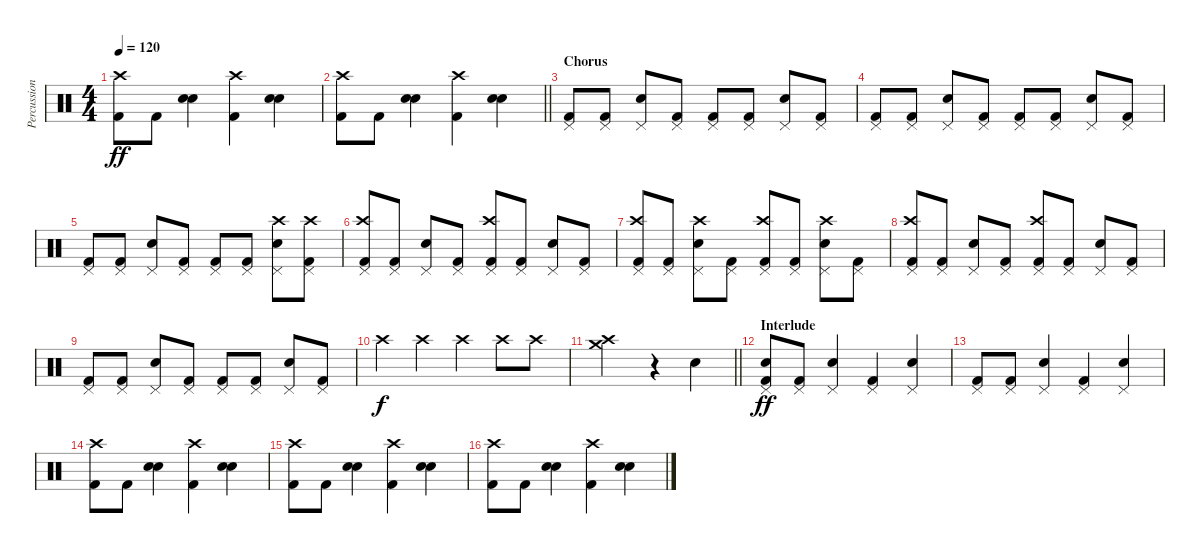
\track ("Percussion" "Percussion") {instrument percussion}
\staff {score}
\articulation defaults
\ts (4 4)
\tempo 120
\clef neutral
\ks c
("Kick (hit) 2" "Crash high (hit)").8{dy ff} "Kick (hit) 2".8 ("Snare (hit) 2" "Snare (hit) 2").4 ("Kick (hit) 2" "Crash high (hit)").4 ("Snare (hit) 2" "Snare (hit) 2").4 |
\barLineRight lightlight
("Kick (hit) 2" "Crash high (hit)").8 "Kick (hit) 2".8 ("Snare (hit) 2" "Snare (hit) 2").4 ("Kick (hit) 2" "Crash high (hit)").4 ("Snare (hit) 2" "Snare (hit) 2").4 |
\section ("" "Chorus")
("Kick (hit) 2" "Pedal Hi-Hat (hit)").8 ("Kick (hit) 2" "Pedal Hi-Hat (hit)").8 ("Snare (hit) 2" "Pedal Hi-Hat (hit)").8 ("Kick (hit) 2" "Pedal Hi-Hat (hit)").8 ("Kick (hit) 2" "Pedal Hi-Hat (hit)").8 ("Kick (hit) 2" "Pedal Hi-Hat (hit)").8 ("Snare (hit) 2" "Pedal Hi-Hat (hit)").8 ("Kick (hit) 2" "Pedal Hi-Hat (hit)").8 |
("Kick (hit) 2" "Pedal Hi-Hat (hit)").8 ("Kick (hit) 2" "Pedal Hi-Hat (hit)").8 ("Snare (hit) 2" "Pedal Hi-Hat (hit)").8 ("Kick (hit) 2" "Pedal Hi-Hat (hit)").8 ("Kick (hit) 2" "Pedal Hi-Hat (hit)").8 ("Kick (hit) 2" "Pedal Hi-Hat (hit)").8 ("Snare (hit) 2" "Pedal Hi-Hat (hit)").8 ("Kick (hit) 2" "Pedal Hi-Hat (hit)").8 |
("Kick (hit) 2" "Pedal Hi-Hat (hit)").8 ("Kick (hit) 2" "Pedal Hi-Hat (hit)").8 ("Snare (hit) 2" "Pedal Hi-Hat (hit)").8 ("Kick (hit) 2" "Pedal Hi-Hat (hit)").8 ("Kick (hit) 2" "Pedal Hi-Hat (hit)").8 ("Kick (hit) 2" "Pedal Hi-Hat (hit)").8 ("Snare (hit) 2" "Pedal Hi-Hat (hit)" "Crash high (hit)").8 ("Kick (hit) 2" "Pedal Hi-Hat (hit)" "Crash high (hit)").8 |
("Kick (hit) 2" "Pedal Hi-Hat (hit)" "Crash high (hit)").8 ("Kick (hit) 2" "Pedal Hi-Hat (hit)").8 ("Snare (hit) 2" "Pedal Hi-Hat (hit)").8 ("Kick (hit) 2" "Pedal Hi-Hat (hit)").8 ("Kick (hit) 2" "Pedal Hi-Hat (hit)" "Crash high (hit)").8 ("Kick (hit) 2" "Pedal Hi-Hat (hit)").8 ("Snare (hit) 2" "Pedal Hi-Hat (hit)").8 ("Kick (hit) 2" "Pedal Hi-Hat (hit)").8 |
("Kick (hit) 2" "Pedal Hi-Hat (hit)" "Crash high (hit)").8 ("Kick (hit) 2" "Pedal Hi-Hat (hit)").8 ("Snare (hit) 2" "Pedal Hi-Hat (hit)" "Crash high (hit)").8 ("Kick (hit) 2" "Pedal Hi-Hat (hit)").8 ("Kick (hit) 2" "Pedal Hi-Hat (hit)" "Crash high (hit)").8 ("Kick (hit) 2" "Pedal Hi-Hat (hit)").8 ("Snare (hit) 2" "Pedal Hi-Hat (hit)" "Crash high (hit)").8 ("Kick (hit) 2" "Pedal Hi-Hat (hit)").8 |
("Kick (hit) 2" "Pedal Hi-Hat (hit)" "Crash high (hit)").8 ("Kick (hit) 2" "Pedal Hi-Hat (hit)").8 ("Snare (hit) 2" "Pedal Hi-Hat (hit)").8 ("Kick (hit) 2" "Pedal Hi-Hat (hit)").8 ("Kick (hit) 2" "Pedal Hi-Hat (hit)" "Crash high (hit)").8 ("Kick (hit) 2" "Pedal Hi-Hat (hit)").8 ("Snare (hit) 2" "Pedal Hi-Hat (hit)").8 ("Kick (hit) 2" "Pedal Hi-Hat (hit)").8 |
("Kick (hit) 2" "Pedal Hi-Hat (hit)").8 ("Kick (hit) 2" "Pedal Hi-Hat (hit)").8 ("Snare (hit) 2" "Pedal Hi-Hat (hit)").8 ("Kick (hit) 2" "Pedal Hi-Hat (hit)").8 ("Kick (hit) 2" "Pedal Hi-Hat (hit)").8 ("Kick (hit) 2" "Pedal Hi-Hat (hit)").8 ("Snare (hit) 2" "Pedal Hi-Hat (hit)").8 ("Kick (hit) 2" "Pedal Hi-Hat (hit)").8 |
"Crash high (hit)".4{dy f} "Crash high (hit)".4 "Crash high (hit)".4 "Crash high (hit)".8 "Crash high (hit)".8 |
\barLineRight lightlight
("Crash high (hit)" "Crash medium (hit)").2 r.4 "Snare (hit) 2".4 |
\section ("" "Interlude")
("Kick (hit) 2" "Pedal Hi-Hat (hit)" "Snare (hit) 2").8{dy ff} ("Kick (hit) 2" "Pedal Hi-Hat (hit)").8 ("Snare (hit) 2" "Pedal Hi-Hat (hit)").4 ("Kick (hit) 2" "Pedal Hi-Hat (hit)").4 ("Snare (hit) 2" "Pedal Hi-Hat (hit)").4 |
("Kick (hit) 2" "Pedal Hi-Hat (hit)").8 ("Kick (hit) 2" "Pedal Hi-Hat (hit)").8 ("Snare (hit) 2" "Pedal Hi-Hat (hit)").4 ("Kick (hit) 2" "Pedal Hi-Hat (hit)").4 ("Snare (hit) 2" "Pedal Hi-Hat (hit)").4 |
("Kick (hit) 2" "Crash high (hit)").8 "Kick (hit) 2".8 ("Snare (hit) 2" "Snare (hit) 2").4 ("Kick (hit) 2" "Crash high (hit)").4 ("Snare (hit) 2" "Snare (hit) 2").4 |
("Kick (hit) 2" "Crash high (hit)").8 "Kick (hit) 2".8 ("Snare (hit) 2" "Snare (hit) 2").4 ("Kick (hit) 2" "Crash high (hit)").4 ("Snare (hit) 2" "Snare (hit) 2").4 |
("Kick (hit) 2" "Crash high (hit)").8 "Kick (hit) 2".8 ("Snare (hit) 2" "Snare (hit) 2").4 ("Kick (hit) 2" "Crash high (hit)").4 ("Snare (hit) 2" "Snare (hit) 2").4
